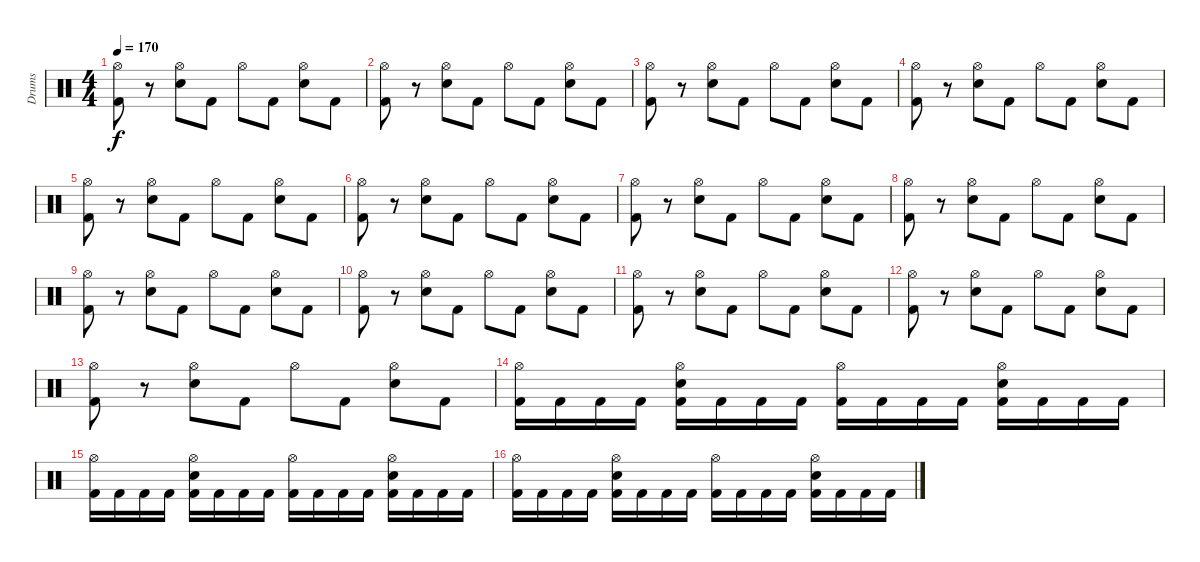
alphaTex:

\track ("Drums" "Drums") {instrument percussion}
\staff {score}
\articulation defaults
\ts (4 4)
\tempo 170
\clef neutral
\ks c
("Hi-Hat (open)" "Kick (hit) 2").8{dy f} r.8 ("Hi-Hat (open)" "Electric Snare (hit)").8 "Kick (hit) 2".8 "Hi-Hat (open)".8 "Kick (hit) 2".8 ("Hi-Hat (open)" "Electric Snare (hit)").8 "Kick (hit) 2".8 |
("Hi-Hat (open)" "Kick (hit) 2").8 r.8 ("Hi-Hat (open)" "Electric Snare (hit)").8 "Kick (hit) 2".8 "Hi-Hat (open)".8 "Kick (hit) 2".8 ("Hi-Hat (open)" "Electric Snare (hit)").8 "Kick (hit) 2".8 |
("Hi-Hat (open)" "Kick (hit) 2").8 r.8 ("Hi-Hat (open)" "Electric Snare (hit)").8 "Kick (hit) 2".8 "Hi-Hat (open)".8 "Kick (hit) 2".8 ("Hi-Hat (open)" "Electric Snare (hit)").8 "Kick (hit) 2".8 |
("Hi-Hat (open)" "Kick (hit) 2").8 r.8 ("Hi-Hat (open)" "Electric Snare (hit)").8 "Kick (hit) 2".8 "Hi-Hat (open)".8 "Kick (hit) 2".8 ("Hi-Hat (open)" "Electric Snare (hit)").8 "Kick (hit) 2".8 |
("Hi-Hat (open)" "Kick (hit) 2").8 r.8 ("Hi-Hat (open)" "Electric Snare (hit)").8 "Kick (hit) 2".8 "Hi-Hat (open)".8 "Kick (hit) 2".8 ("Hi-Hat (open)" "Electric Snare (hit)").8 "Kick (hit) 2".8 |
("Hi-Hat (open)" "Kick (hit) 2").8 r.8 ("Hi-Hat (open)" "Electric Snare (hit)").8 "Kick (hit) 2".8 "Hi-Hat (open)".8 "Kick (hit) 2".8 ("Hi-Hat (open)" "Electric Snare (hit)").8 "Kick (hit) 2".8 |
("Hi-Hat (open)" "Kick (hit) 2").8 r.8 ("Hi-Hat (open)" "Electric Snare (hit)").8 "Kick (hit) 2".8 "Hi-Hat (open)".8 "Kick (hit) 2".8 ("Hi-Hat (open)" "Electric Snare (hit)").8 "Kick (hit) 2".8 |
("Hi-Hat (open)" "Kick (hit) 2").8 r.8 ("Hi-Hat (open)" "Electric Snare (hit)").8 "Kick (hit) 2".8 "Hi-Hat (open)".8 "Kick (hit) 2".8 ("Hi-Hat (open)" "Electric Snare (hit)").8 "Kick (hit) 2".8 |
("Hi-Hat (open)" "Kick (hit) 2").8 r.8 ("Hi-Hat (open)" "Electric Snare (hit)").8 "Kick (hit) 2".8 "Hi-Hat (open)".8 "Kick (hit) 2".8 ("Hi-Hat (open)" "Electric Snare (hit)").8 "Kick (hit) 2".8 |
("Hi-Hat (open)" "Kick (hit) 2").8 r.8 ("Hi-Hat (open)" "Electric Snare (hit)").8 "Kick (hit) 2".8 "Hi-Hat (open)".8 "Kick (hit) 2".8 ("Hi-Hat (open)" "Electric Snare (hit)").8 "Kick (hit) 2".8 |
("Hi-Hat (open)" "Kick (hit) 2").8 r.8 ("Hi-Hat (open)" "Electric Snare (hit)").8 "Kick (hit) 2".8 "Hi-Hat (open)".8 "Kick (hit) 2".8 ("Hi-Hat (open)" "Electric Snare (hit)").8 "Kick (hit) 2".8 |
("Hi-Hat (open)" "Kick (hit) 2").8 r.8 ("Hi-Hat (open)" "Electric Snare (hit)").8 "Kick (hit) 2".8 "Hi-Hat (open)".8 "Kick (hit) 2".8 ("Hi-Hat (open)" "Electric Snare (hit)").8 "Kick (hit) 2".8 |
("Hi-Hat (open)" "Kick (hit) 2").8 r.8 ("Hi-Hat (open)" "Electric Snare (hit)").8 "Kick (hit) 2".8 "Hi-Hat (open)".8 "Kick (hit) 2".8 ("Hi-Hat (open)" "Electric Snare (hit)").8 "Kick (hit) 2".8 |
("Hi-Hat (open)" "Kick (hit) 2").16 "Kick (hit) 2".16 "Kick (hit) 2".16 "Kick (hit) 2".16 ("Hi-Hat (open)" "Electric Snare (hit)" "Kick (hit) 2").16 "Kick (hit) 2".16 "Kick (hit) 2".16 "Kick (hit) 2".16 ("Hi-Hat (open)" "Kick (hit) 2").16 "Kick (hit) 2".16 "Kick (hit) 2".16 "Kick (hit) 2".16 ("Hi-Hat (open)" "Electric Snare (hit)" "Kick (hit) 2").16 "Kick (hit) 2".16 "Kick (hit) 2".16 "Kick (hit) 2".16 |
("Hi-Hat (open)" "Kick (hit) 2").16 "Kick (hit) 2".16 "Kick (hit) 2".16 "Kick (hit) 2".16 ("Hi-Hat (open)" "Electric Snare (hit)" "Kick (hit) 2").16 "Kick (hit) 2".16 "Kick (hit) 2".16 "Kick (hit) 2".16 ("Hi-Hat (open)" "Kick (hit) 2").16 "Kick (hit) 2".16 "Kick (hit) 2".16 "Kick (hit) 2".16 ("Hi-Hat (open)" "Electric Snare (hit)" "Kick (hit) 2").16 "Kick (hit) 2".16 "Kick (hit) 2".16 "Kick (hit) 2".16 |
("Hi-Hat (open)" "Kick (hit) 2").16 "Kick (hit) 2".16 "Kick (hit) 2".16 "Kick (hit) 2".16 ("Hi-Hat (open)" "Electric Snare (hit)" "Kick (hit) 2").16 "Kick (hit) 2".16 "Kick (hit) 2".16 "Kick (hit) 2".16 ("Hi-Hat (open)" "Kick (hit) 2").16 "Kick (hit) 2".16 "Kick (hit) 2".16 "Kick (hit) 2".16 ("Hi-Hat (open)" "Electric Snare (hit)" "Kick (hit) 2").16 "Kick (hit) 2".16 "Kick (hit) 2".16 "Kick (hit) 2".16
